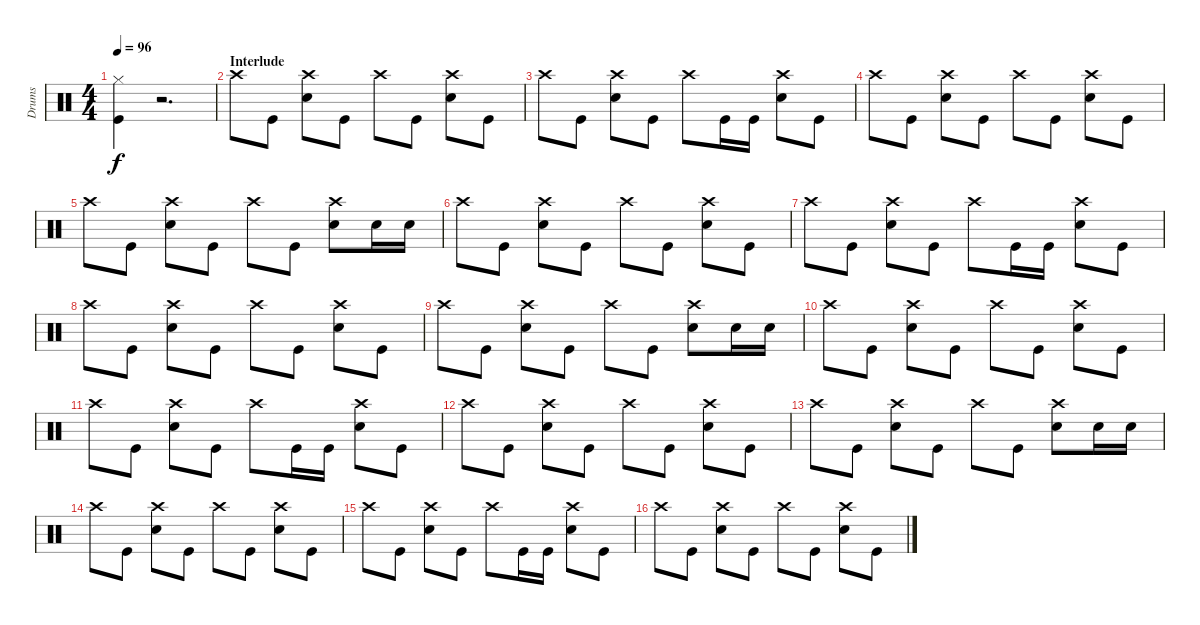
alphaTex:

\track ("Drums" "Drums") {instrument percussion}
\staff {score}
\articulation defaults
\ts (4 4)
\tempo 96
\clef neutral
\ks c
("Kick (hit)" "Hi-Hat (closed)").4{dy f} r.2{d} |
\section ("" "Interlude")
"Crash high (hit)".8 "Kick (hit)".8 ("Snare (hit) 2" "Crash high (hit)").8 "Kick (hit)".8 "Crash high (hit)".8 "Kick (hit)".8 ("Snare (hit) 2" "Crash high (hit)").8 "Kick (hit)".8 |
"Crash high (hit)".8 "Kick (hit)".8 ("Snare (hit) 2" "Crash high (hit)").8 "Kick (hit)".8 "Crash high (hit)".8 "Kick (hit)".16 "Kick (hit)".16 ("Snare (hit) 2" "Crash high (hit)").8 "Kick (hit)".8 |
"Crash high (hit)".8 "Kick (hit)".8 ("Snare (hit) 2" "Crash high (hit)").8 "Kick (hit)".8 "Crash high (hit)".8 "Kick (hit)".8 ("Snare (hit) 2" "Crash high (hit)").8 "Kick (hit)".8 |
"Crash high (hit)".8 "Kick (hit)".8 ("Snare (hit) 2" "Crash high (hit)").8 "Kick (hit)".8 "Crash high (hit)".8 "Kick (hit)".8 ("Snare (hit) 2" "Crash high (hit)").8 "Snare (hit) 2".16 "Snare (hit) 2".16 |
"Crash high (hit)".8 "Kick (hit)".8 ("Snare (hit) 2" "Crash high (hit)").8 "Kick (hit)".8 "Crash high (hit)".8 "Kick (hit)".8 ("Snare (hit) 2" "Crash high (hit)").8 "Kick (hit)".8 |
"Crash high (hit)".8 "Kick (hit)".8 ("Snare (hit) 2" "Crash high (hit)").8 "Kick (hit)".8 "Crash high (hit)".8 "Kick (hit)".16 "Kick (hit)".16 ("Snare (hit) 2" "Crash high (hit)").8 "Kick (hit)".8 |
"Crash high (hit)".8 "Kick (hit)".8 ("Snare (hit) 2" "Crash high (hit)").8 "Kick (hit)".8 "Crash high (hit)".8 "Kick (hit)".8 ("Snare (hit) 2" "Crash high (hit)").8 "Kick (hit)".8 |
"Crash high (hit)".8 "Kick (hit)".8 ("Snare (hit) 2" "Crash high (hit)").8 "Kick (hit)".8 "Crash high (hit)".8 "Kick (hit)".8 ("Snare (hit) 2" "Crash high (hit)").8 "Snare (hit) 2".16 "Snare (hit) 2".16 |
"Crash high (hit)".8 "Kick (hit)".8 ("Snare (hit) 2" "Crash high (hit)").8 "Kick (hit)".8 "Crash high (hit)".8 "Kick (hit)".8 ("Snare (hit) 2" "Crash high (hit)").8 "Kick (hit)".8 |
"Crash high (hit)".8 "Kick (hit)".8 ("Snare (hit) 2" "Crash high (hit)").8 "Kick (hit)".8 "Crash high (hit)".8 "Kick (hit)".16 "Kick (hit)".16 ("Snare (hit) 2" "Crash high (hit)").8 "Kick (hit)".8 |
"Crash high (hit)".8 "Kick (hit)".8 ("Snare (hit) 2" "Crash high (hit)").8 "Kick (hit)".8 "Crash high (hit)".8 "Kick (hit)".8 ("Snare (hit) 2" "Crash high (hit)").8 "Kick (hit)".8 |
"Crash high (hit)".8 "Kick (hit)".8 ("Snare (hit) 2" "Crash high (hit)").8 "Kick (hit)".8 "Crash high (hit)".8 "Kick (hit)".8 ("Snare (hit) 2" "Crash high (hit)").8 "Snare (hit) 2".16 "Snare (hit) 2".16 |
"Crash high (hit)".8 "Kick (hit)".8 ("Snare (hit) 2" "Crash high (hit)").8 "Kick (hit)".8 "Crash high (hit)".8 "Kick (hit)".8 ("Snare (hit) 2" "Crash high (hit)").8 "Kick (hit)".8 |
"Crash high (hit)".8 "Kick (hit)".8 ("Snare (hit) 2" "Crash high (hit)").8 "Kick (hit)".8 "Crash high (hit)".8 "Kick (hit)".16 "Kick (hit)".16 ("Snare (hit) 2" "Crash high (hit)").8 "Kick (hit)".8 |
"Crash high (hit)".8 "Kick (hit)".8 ("Snare (hit) 2" "Crash high (hit)").8 "Kick (hit)".8 "Crash high (hit)".8 "Kick (hit)".8 ("Snare (hit) 2" "Crash high (hit)").8 "Kick (hit)".8
